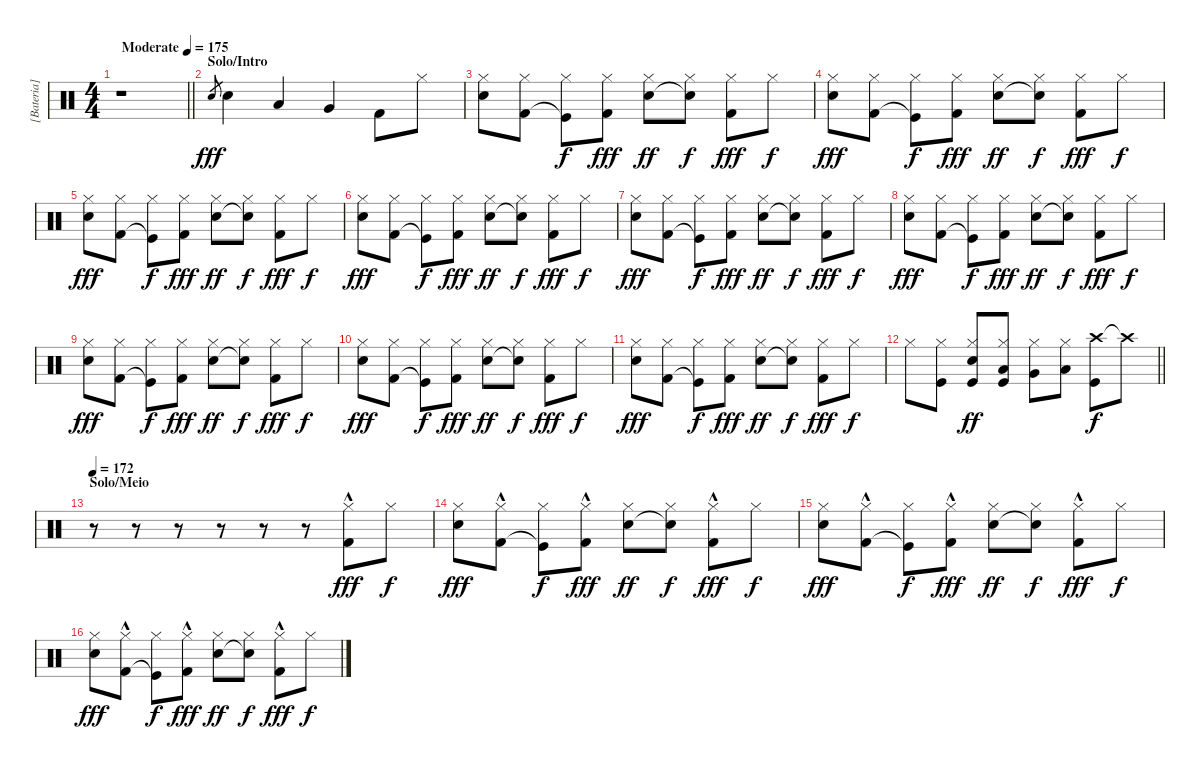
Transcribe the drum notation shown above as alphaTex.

\track ("[Bateria]" "[Bateria]") {instrument percussion}
\staff {score}
\articulation defaults
\ts (4 4)
\tempo (175 "Moderate")
\clef neutral
\barLineRight lightlight
\ks c
r.1{dy fff} |
\section ("" "Solo/Intro")
"Snare (hit) 2".8{gr} "Electric Snare (hit)".4 "Low Tom (hit)".4 "Very Low Tom (hit)".4 "Kick (hit) 2".8 "Hi-Hat (closed)".8 |
("Hi-Hat (closed)" "Electric Snare (hit)").8 ("Hi-Hat (closed)" "Kick (hit) 2").8 ("Hi-Hat (closed)" "Kick (hit)"{t}).8{dy f} ("Hi-Hat (closed)" "Kick (hit) 2").8{dy fff} ("Hi-Hat (closed)" "Electric Snare (hit)").8{dy ff} ("Hi-Hat (closed)" "Electric Snare (hit)"{t}).8{dy f} ("Hi-Hat (closed)" "Kick (hit) 2").8{dy fff} "Hi-Hat (closed)".8{dy f} |
("Hi-Hat (closed)" "Electric Snare (hit)").8{dy fff} ("Hi-Hat (closed)" "Kick (hit) 2").8 ("Hi-Hat (closed)" "Kick (hit)"{t}).8{dy f} ("Hi-Hat (closed)" "Kick (hit) 2").8{dy fff} ("Hi-Hat (closed)" "Electric Snare (hit)").8{dy ff} ("Hi-Hat (closed)" "Electric Snare (hit)"{t}).8{dy f} ("Hi-Hat (closed)" "Kick (hit) 2").8{dy fff} "Hi-Hat (closed)".8{dy f} |
("Hi-Hat (closed)" "Electric Snare (hit)").8{dy fff} ("Hi-Hat (closed)" "Kick (hit) 2").8 ("Hi-Hat (closed)" "Kick (hit)"{t}).8{dy f} ("Hi-Hat (closed)" "Kick (hit) 2").8{dy fff} ("Hi-Hat (closed)" "Electric Snare (hit)").8{dy ff} ("Hi-Hat (closed)" "Electric Snare (hit)"{t}).8{dy f} ("Hi-Hat (closed)" "Kick (hit) 2").8{dy fff} "Hi-Hat (closed)".8{dy f} |
("Hi-Hat (closed)" "Electric Snare (hit)").8{dy fff} ("Hi-Hat (closed)" "Kick (hit) 2").8 ("Hi-Hat (closed)" "Kick (hit)"{t}).8{dy f} ("Hi-Hat (closed)" "Kick (hit) 2").8{dy fff} ("Hi-Hat (closed)" "Electric Snare (hit)").8{dy ff} ("Hi-Hat (closed)" "Electric Snare (hit)"{t}).8{dy f} ("Hi-Hat (closed)" "Kick (hit) 2").8{dy fff} "Hi-Hat (closed)".8{dy f} |
("Hi-Hat (closed)" "Electric Snare (hit)").8{dy fff} ("Hi-Hat (closed)" "Kick (hit) 2").8 ("Hi-Hat (closed)" "Kick (hit)"{t}).8{dy f} ("Hi-Hat (closed)" "Kick (hit) 2").8{dy fff} ("Hi-Hat (closed)" "Electric Snare (hit)").8{dy ff} ("Hi-Hat (closed)" "Electric Snare (hit)"{t}).8{dy f} ("Hi-Hat (closed)" "Kick (hit) 2").8{dy fff} "Hi-Hat (closed)".8{dy f} |
("Hi-Hat (closed)" "Electric Snare (hit)").8{dy fff} ("Hi-Hat (closed)" "Kick (hit) 2").8 ("Hi-Hat (closed)" "Kick (hit)"{t}).8{dy f} ("Hi-Hat (closed)" "Kick (hit) 2").8{dy fff} ("Hi-Hat (closed)" "Electric Snare (hit)").8{dy ff} ("Hi-Hat (closed)" "Electric Snare (hit)"{t}).8{dy f} ("Hi-Hat (closed)" "Kick (hit) 2").8{dy fff} "Hi-Hat (closed)".8{dy f} |
("Hi-Hat (closed)" "Electric Snare (hit)").8{dy fff} ("Hi-Hat (closed)" "Kick (hit) 2").8 ("Hi-Hat (closed)" "Kick (hit)"{t}).8{dy f} ("Hi-Hat (closed)" "Kick (hit) 2").8{dy fff} ("Hi-Hat (closed)" "Electric Snare (hit)").8{dy ff} ("Hi-Hat (closed)" "Electric Snare (hit)"{t}).8{dy f} ("Hi-Hat (closed)" "Kick (hit) 2").8{dy fff} "Hi-Hat (closed)".8{dy f} |
("Hi-Hat (closed)" "Electric Snare (hit)").8{dy fff} ("Hi-Hat (closed)" "Kick (hit) 2").8 ("Hi-Hat (closed)" "Kick (hit)"{t}).8{dy f} ("Hi-Hat (closed)" "Kick (hit) 2").8{dy fff} ("Hi-Hat (closed)" "Electric Snare (hit)").8{dy ff} ("Hi-Hat (closed)" "Electric Snare (hit)"{t}).8{dy f} ("Hi-Hat (closed)" "Kick (hit) 2").8{dy fff} "Hi-Hat (closed)".8{dy f} |
("Hi-Hat (closed)" "Electric Snare (hit)").8{dy fff} ("Hi-Hat (closed)" "Kick (hit) 2").8 ("Hi-Hat (closed)" "Kick (hit)"{t}).8{dy f} ("Hi-Hat (closed)" "Kick (hit) 2").8{dy fff} ("Hi-Hat (closed)" "Electric Snare (hit)").8{dy ff} ("Hi-Hat (closed)" "Electric Snare (hit)"{t}).8{dy f} ("Hi-Hat (closed)" "Kick (hit) 2").8{dy fff} "Hi-Hat (closed)".8{dy f} |
\barLineRight lightlight "Hi-Hat (closed)".8
("Hi-Hat (closed)" "Kick (hit)").8 ("Hi-Hat (closed)" "Electric Snare (hit)" "Kick (hit)").8{dy ff} ("Hi-Hat (closed)" "Low Tom (hit)" "Kick (hit)").8 ("Hi-Hat (closed)" "Very Low Tom (hit)").8 ("Hi-Hat (closed)" "Low Floor Tom (hit)").8 ("Crash high (hit)" "Kick (hit)").8{dy f} "Crash high (hit)"{t}.8 |
\section ("" "Solo/Meio")
\tempo 172
r.8 r.8 r.8 r.8 r.8 r.8 ("Hi-Hat (closed)" "Kick (hit) 2"{hac}).8{dy fff volume 11} "Hi-Hat (closed)".8{dy f} |
("Hi-Hat (closed)" "Electric Snare (hit)").8{dy fff} ("Hi-Hat (closed)" "Kick (hit) 2"{hac}).8 ("Hi-Hat (closed)" "Kick (hit)"{t}).8{dy f} ("Hi-Hat (closed)" "Kick (hit) 2"{hac}).8{dy fff} ("Hi-Hat (closed)" "Electric Snare (hit)").8{dy ff} ("Hi-Hat (closed)" "Electric Snare (hit)"{t}).8{dy f} ("Hi-Hat (closed)" "Kick (hit) 2"{hac}).8{dy fff} "Hi-Hat (closed)".8{dy f} |
("Hi-Hat (closed)" "Electric Snare (hit)").8{dy fff} ("Hi-Hat (closed)" "Kick (hit) 2"{hac}).8 ("Hi-Hat (closed)" "Kick (hit)"{t}).8{dy f} ("Hi-Hat (closed)" "Kick (hit) 2"{hac}).8{dy fff} ("Hi-Hat (closed)" "Electric Snare (hit)").8{dy ff} ("Hi-Hat (closed)" "Electric Snare (hit)"{t}).8{dy f} ("Hi-Hat (closed)" "Kick (hit) 2"{hac}).8{dy fff} "Hi-Hat (closed)".8{dy f} |
("Hi-Hat (closed)" "Electric Snare (hit)").8{dy fff} ("Hi-Hat (closed)" "Kick (hit) 2"{hac}).8 ("Hi-Hat (closed)" "Kick (hit)"{t}).8{dy f} ("Hi-Hat (closed)" "Kick (hit) 2"{hac}).8{dy fff} ("Hi-Hat (closed)" "Electric Snare (hit)").8{dy ff} ("Hi-Hat (closed)" "Electric Snare (hit)"{t}).8{dy f} ("Hi-Hat (closed)" "Kick (hit) 2"{hac}).8{dy fff} "Hi-Hat (closed)".8{dy f}
